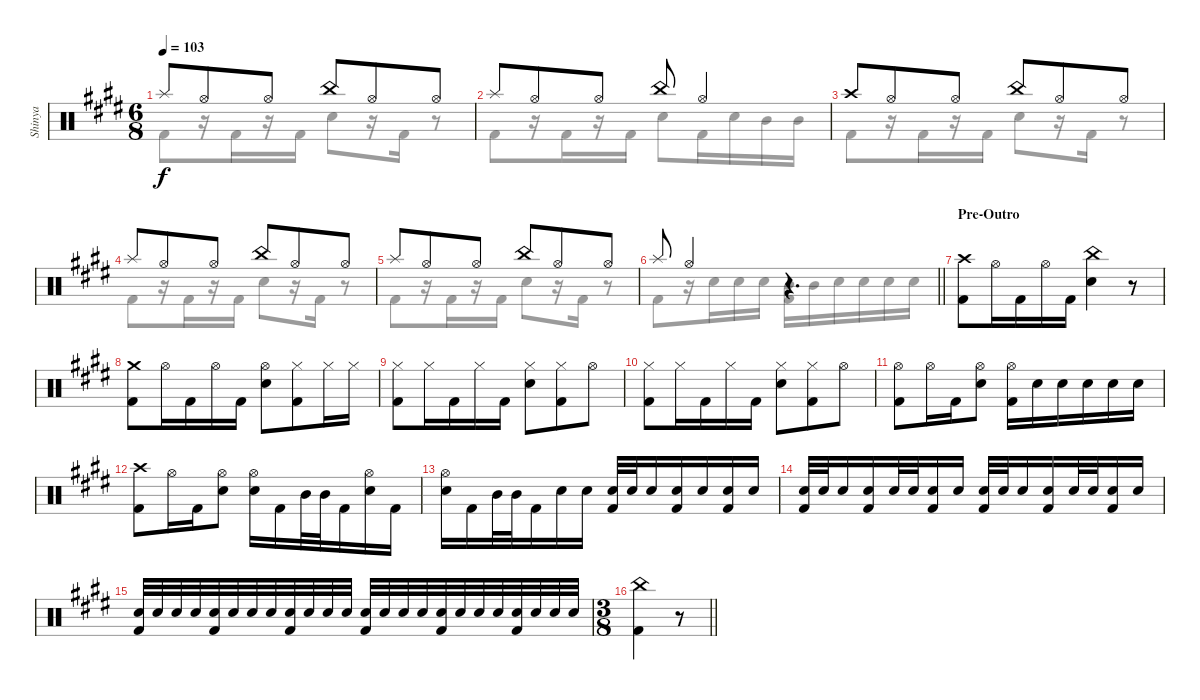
\track ("Shinya" "Shinya") {instrument percussion}
\staff {score}
\articulation defaults
\voice
\ts (6 8)
\tempo 103
\clef neutral
\ks c#minor "Splash (hit)".8{dy f} "Hi-Hat (open)".8 "Hi-Hat (open)".8 "China (hit)".8 "Hi-Hat (open)".8 "Hi-Hat (open)".8
|
"Splash (hit)".8 "Hi-Hat (open)".8 "Hi-Hat (open)".8 "China (hit)".8 "Hi-Hat (open)".4 |
"Crash high (hit)".8 "Hi-Hat (open)".8 "Hi-Hat (open)".8 "China (hit)".8 "Hi-Hat (open)".8 "Hi-Hat (open)".8 |
"Splash (hit)".8 "Hi-Hat (open)".8 "Hi-Hat (open)".8 "China (hit)".8 "Hi-Hat (open)".8 "Hi-Hat (open)".8 |
"Splash (hit)".8 "Hi-Hat (open)".8 "Hi-Hat (open)".8 "China (hit)".8 "Hi-Hat (open)".8 "Hi-Hat (open)".8 |
\barLineRight lightlight "Splash (hit)".8 "Hi-Hat (open)".4
r.4{d} |
\section ("" "Pre-Outro")
("Crash high (hit)" "Kick (hit) 2").8 "Hi-Hat (open)".16 "Kick (hit) 2".16 "Hi-Hat (open)".16 "Kick (hit) 2".16 ("China (hit)" "Snare (hit) 2").4 r.8 |
("Crash medium (hit)" "Kick (hit) 2").8 "Hi-Hat (open)".16 "Kick (hit) 2".16 "Hi-Hat (open)".16 "Kick (hit) 2".16 ("Hi-Hat (open)" "Snare (hit) 2").8 ("Hi-Hat (closed)" "Kick (hit) 2").8 "Hi-Hat (closed)".16 "Hi-Hat (closed)".16 |
("Hi-Hat (closed)" "Kick (hit) 2").8 "Hi-Hat (closed)".16 "Kick (hit) 2".16 "Hi-Hat (closed)".16 "Kick (hit) 2".16 ("Hi-Hat (closed)" "Snare (hit) 2").8 ("Hi-Hat (closed)" "Kick (hit) 2").8 "Hi-Hat (open)".8 |
("Hi-Hat (closed)" "Kick (hit) 2").8 "Hi-Hat (closed)".16 "Kick (hit) 2".16 "Hi-Hat (closed)".16 "Kick (hit) 2".16 ("Hi-Hat (closed)" "Snare (hit) 2").8 ("Hi-Hat (closed)" "Kick (hit) 2").8 "Hi-Hat (open)".8 |
("Hi-Hat (open)" "Kick (hit) 2").8 "Hi-Hat (open)".16 "Kick (hit) 2".16 ("Hi-Hat (open)" "Snare (hit) 2").8 ("Hi-Hat (open)" "Kick (hit) 2").16 "Snare (hit) 2".16 "Snare (hit) 2".16 "Snare (hit) 2".16 "Snare (hit) 2".16 "Snare (hit) 2".16 |
("Crash high (hit)" "Kick (hit) 2").8 "Hi-Hat (open)".16 "Kick (hit) 2".16 ("Hi-Hat (open)" "Snare (hit) 2").8 ("Hi-Hat (open)" "Snare (hit) 2").16 "Kick (hit) 2".16 "Mid Tom (hit)".32 "Mid Tom (hit)".32 "Kick (hit) 2".16 ("Hi-Hat (open)" "Snare (hit) 2").16 "Kick (hit) 2".16 |
("Hi-Hat (open)" "Snare (hit) 2").16 "Kick (hit) 2".16 "Mid Tom (hit)".32 "Mid Tom (hit)".32 "Kick (hit) 2".16 "Snare (hit) 2".16 "Snare (hit) 2".16 ("Snare (hit) 2" "Kick (hit) 2").32 "Snare (hit) 2".32 "Snare (hit) 2".16 ("Snare (hit) 2" "Kick (hit) 2").16 "Snare (hit) 2".16 ("Snare (hit) 2" "Kick (hit) 2").16 "Snare (hit) 2".16 |
("Snare (hit) 2" "Kick (hit) 2").32 "Snare (hit) 2".32 "Snare (hit) 2".16 ("Snare (hit) 2" "Kick (hit) 2").16 "Snare (hit) 2".32 "Snare (hit) 2".32 ("Snare (hit) 2" "Kick (hit) 2").16 "Snare (hit) 2".16 ("Snare (hit) 2" "Kick (hit) 2").32 "Snare (hit) 2".32 "Snare (hit) 2".16 ("Snare (hit) 2" "Kick (hit) 2").16 "Snare (hit) 2".32 "Snare (hit) 2".32 ("Snare (hit) 2" "Kick (hit) 2").16 "Snare (hit) 2".16 |
("Snare (hit) 2" "Kick (hit) 2").32 "Snare (hit) 2".32 "Snare (hit) 2".32 "Snare (hit) 2".32 ("Snare (hit) 2" "Kick (hit) 2").32 "Snare (hit) 2".32 "Snare (hit) 2".32 "Snare (hit) 2".32 ("Snare (hit) 2" "Kick (hit) 2").32 "Snare (hit) 2".32 "Snare (hit) 2".32 "Snare (hit) 2".32 ("Snare (hit) 2" "Kick (hit) 2").32 "Snare (hit) 2".32 "Snare (hit) 2".32 "Snare (hit) 2".32 ("Snare (hit) 2" "Kick (hit) 2").32 "Snare (hit) 2".32 "Snare (hit) 2".32 "Snare (hit) 2".32 ("Snare (hit) 2" "Kick (hit) 2").32 "Snare (hit) 2".32 "Snare (hit) 2".32 "Snare (hit) 2".32 |
\ts (3 8)
\barLineRight lightlight
("China (hit)" "Kick (hit) 2").4 r.8
\voice
\clef neutral
\ottava regular
\simile none
\ks c#minor "Kick (hit) 2".8{dy f}
r.16 "Kick (hit) 2".16 r.16 "Kick (hit) 2".16 "Snare (hit) 2".8 r.16 "Kick (hit) 2".16 r.8 |
"Kick (hit) 2".8 r.16 "Kick (hit) 2".16 r.16 "Kick (hit) 2".16 "Snare (hit) 2".8 "Kick (hit) 2".16 "Snare (hit) 2".16 "Mid Tom (hit)".16 "Mid Tom (hit)".16 |
"Kick (hit) 2".8 r.16 "Kick (hit) 2".16 r.16 "Kick (hit) 2".16 "Snare (hit) 2".8 r.16 "Kick (hit) 2".16 r.8 |
"Kick (hit) 2".8 r.16 "Kick (hit) 2".16 r.16 "Kick (hit) 2".16 "Snare (hit) 2".8 r.16 "Kick (hit) 2".16 r.8 |
"Kick (hit) 2".8 r.16 "Kick (hit) 2".16 r.16 "Kick (hit) 2".16 "Snare (hit) 2".8 r.16 "Kick (hit) 2".16 r.8 |
\barLineRight lightlight "Kick (hit) 2".8
r.16 "Snare (hit) 2".16 "Snare (hit) 2".16 "Snare (hit) 2".16 ("Mid Tom (hit)" "Kick (hit) 2").16 "Mid Tom (hit)".16 "Snare (hit) 2".16 "Snare (hit) 2".16 "Snare (hit) 2".16 "Snare (hit) 2".16 |
|
|
|
|
|
|
|
|
|
\barLineRight lightlight
